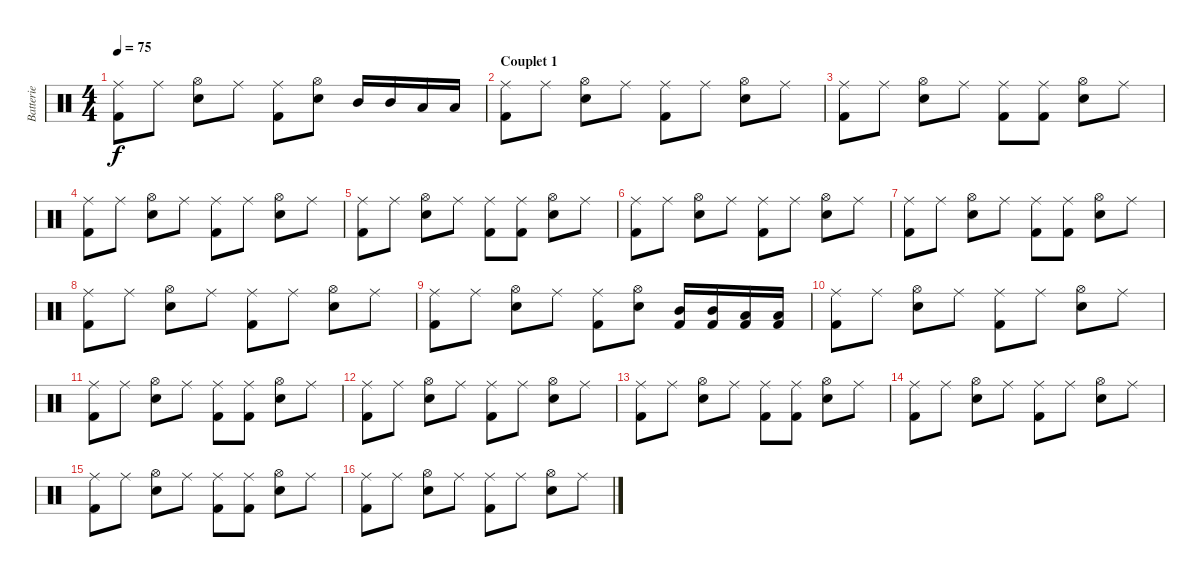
\track ("Batterie" "Batterie") {instrument percussion}
\staff {score}
\articulation defaults
\ts (4 4)
\tempo 75
\clef neutral
\ks c
("Ride (middle)" "Kick (hit) 2").8{dy f} "Ride (middle)".8 ("Hi-Hat (open)" "Snare (hit) 2").8 "Ride (middle)".8 ("Ride (middle)" "Kick (hit) 2").8 ("Hi-Hat (open)" "Snare (hit) 2").8 "Mid Tom (hit)".16 "Mid Tom (hit)".16 "Low Tom (hit)".16 "Low Tom (hit)".16 |
\section ("" "Couplet 1")
("Ride (middle)" "Kick (hit) 2").8 "Ride (middle)".8 ("Hi-Hat (open)" "Snare (hit) 2").8 "Ride (middle)".8 ("Ride (middle)" "Kick (hit) 2").8 "Ride (middle)".8 ("Hi-Hat (open)" "Snare (hit) 2").8 "Ride (middle)".8 |
("Ride (middle)" "Kick (hit) 2").8 "Ride (middle)".8 ("Hi-Hat (open)" "Snare (hit) 2").8 "Ride (middle)".8 ("Ride (middle)" "Kick (hit) 2").8 ("Ride (middle)" "Kick (hit) 2").8 ("Hi-Hat (open)" "Snare (hit) 2").8 "Ride (middle)".8 |
("Ride (middle)" "Kick (hit) 2").8 "Ride (middle)".8 ("Hi-Hat (open)" "Snare (hit) 2").8 "Ride (middle)".8 ("Ride (middle)" "Kick (hit) 2").8 "Ride (middle)".8 ("Hi-Hat (open)" "Snare (hit) 2").8 "Ride (middle)".8 |
("Ride (middle)" "Kick (hit) 2").8 "Ride (middle)".8 ("Hi-Hat (open)" "Snare (hit) 2").8 "Ride (middle)".8 ("Ride (middle)" "Kick (hit) 2").8 ("Ride (middle)" "Kick (hit) 2").8 ("Hi-Hat (open)" "Snare (hit) 2").8 "Ride (middle)".8 |
("Ride (middle)" "Kick (hit) 2").8 "Ride (middle)".8 ("Hi-Hat (open)" "Snare (hit) 2").8 "Ride (middle)".8 ("Ride (middle)" "Kick (hit) 2").8 "Ride (middle)".8 ("Hi-Hat (open)" "Snare (hit) 2").8 "Ride (middle)".8 |
("Ride (middle)" "Kick (hit) 2").8 "Ride (middle)".8 ("Hi-Hat (open)" "Snare (hit) 2").8 "Ride (middle)".8 ("Ride (middle)" "Kick (hit) 2").8 ("Ride (middle)" "Kick (hit) 2").8 ("Hi-Hat (open)" "Snare (hit) 2").8 "Ride (middle)".8 |
("Ride (middle)" "Kick (hit) 2").8 "Ride (middle)".8 ("Hi-Hat (open)" "Snare (hit) 2").8 "Ride (middle)".8 ("Ride (middle)" "Kick (hit) 2").8 "Ride (middle)".8 ("Hi-Hat (open)" "Snare (hit) 2").8 "Ride (middle)".8 |
("Ride (middle)" "Kick (hit) 2").8 "Ride (middle)".8 ("Hi-Hat (open)" "Snare (hit) 2").8 "Ride (middle)".8 ("Ride (middle)" "Kick (hit) 2").8 ("Hi-Hat (open)" "Snare (hit) 2").8 ("Mid Tom (hit)" "Kick (hit) 2").16 ("Mid Tom (hit)" "Kick (hit) 2").16 ("Low Tom (hit)" "Kick (hit) 2").16 ("Low Tom (hit)" "Kick (hit) 2").16 |
("Ride (middle)" "Kick (hit) 2").8 "Ride (middle)".8 ("Hi-Hat (open)" "Snare (hit) 2").8 "Ride (middle)".8 ("Ride (middle)" "Kick (hit) 2").8 "Ride (middle)".8 ("Hi-Hat (open)" "Snare (hit) 2").8 "Ride (middle)".8 |
("Ride (middle)" "Kick (hit) 2").8 "Ride (middle)".8 ("Hi-Hat (open)" "Snare (hit) 2").8 "Ride (middle)".8 ("Ride (middle)" "Kick (hit) 2").8 ("Ride (middle)" "Kick (hit) 2").8 ("Hi-Hat (open)" "Snare (hit) 2").8 "Ride (middle)".8 |
("Ride (middle)" "Kick (hit) 2").8 "Ride (middle)".8 ("Hi-Hat (open)" "Snare (hit) 2").8 "Ride (middle)".8 ("Ride (middle)" "Kick (hit) 2").8 "Ride (middle)".8 ("Hi-Hat (open)" "Snare (hit) 2").8 "Ride (middle)".8 |
("Ride (middle)" "Kick (hit) 2").8 "Ride (middle)".8 ("Hi-Hat (open)" "Snare (hit) 2").8 "Ride (middle)".8 ("Ride (middle)" "Kick (hit) 2").8 ("Ride (middle)" "Kick (hit) 2").8 ("Hi-Hat (open)" "Snare (hit) 2").8 "Ride (middle)".8 |
("Ride (middle)" "Kick (hit) 2").8 "Ride (middle)".8 ("Hi-Hat (open)" "Snare (hit) 2").8 "Ride (middle)".8 ("Ride (middle)" "Kick (hit) 2").8 "Ride (middle)".8 ("Hi-Hat (open)" "Snare (hit) 2").8 "Ride (middle)".8 |
("Ride (middle)" "Kick (hit) 2").8 "Ride (middle)".8 ("Hi-Hat (open)" "Snare (hit) 2").8 "Ride (middle)".8 ("Ride (middle)" "Kick (hit) 2").8 ("Ride (middle)" "Kick (hit) 2").8 ("Hi-Hat (open)" "Snare (hit) 2").8 "Ride (middle)".8 |
("Ride (middle)" "Kick (hit) 2").8 "Ride (middle)".8 ("Hi-Hat (open)" "Snare (hit) 2").8 "Ride (middle)".8 ("Ride (middle)" "Kick (hit) 2").8 "Ride (middle)".8 ("Hi-Hat (open)" "Snare (hit) 2").8 "Ride (middle)".8
